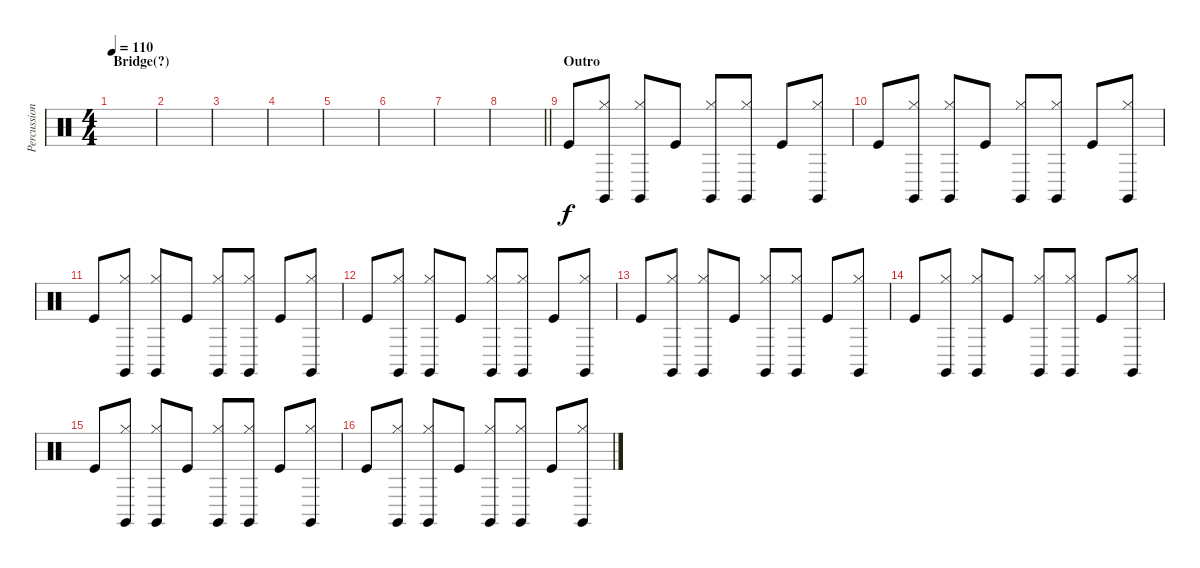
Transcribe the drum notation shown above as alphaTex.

\track ("Percussion" "Percussion") {instrument percussion}
\staff {score}
\articulation defaults
\ts (4 4)
\section ("" "Bridge(?)")
\tempo 110
\clef neutral
\ks c
|
|
|
|
|
|
|
\barLineRight lightlight
|
\section ("" "Outro")
"Kick (hit)".8 ("Claves (hit)" "Hi-Hat (closed)").8 ("Claves (hit)" "Hi-Hat (closed)").8 "Kick (hit)".8 ("Claves (hit)" "Hi-Hat (closed)").8 ("Claves (hit)" "Hi-Hat (closed)").8 "Kick (hit)".8 ("Claves (hit)" "Hi-Hat (closed)").8 |
"Kick (hit)".8 ("Claves (hit)" "Hi-Hat (closed)").8 ("Claves (hit)" "Hi-Hat (closed)").8 "Kick (hit)".8 ("Claves (hit)" "Hi-Hat (closed)").8 ("Claves (hit)" "Hi-Hat (closed)").8 "Kick (hit)".8 ("Claves (hit)" "Hi-Hat (closed)").8 |
"Kick (hit)".8 ("Claves (hit)" "Hi-Hat (closed)").8 ("Claves (hit)" "Hi-Hat (closed)").8 "Kick (hit)".8 ("Claves (hit)" "Hi-Hat (closed)").8 ("Claves (hit)" "Hi-Hat (closed)").8 "Kick (hit)".8 ("Claves (hit)" "Hi-Hat (closed)").8 |
"Kick (hit)".8 ("Claves (hit)" "Hi-Hat (closed)").8 ("Claves (hit)" "Hi-Hat (closed)").8 "Kick (hit)".8 ("Claves (hit)" "Hi-Hat (closed)").8 ("Claves (hit)" "Hi-Hat (closed)").8 "Kick (hit)".8 ("Claves (hit)" "Hi-Hat (closed)").8 |
"Kick (hit)".8 ("Claves (hit)" "Hi-Hat (closed)").8 ("Claves (hit)" "Hi-Hat (closed)").8 "Kick (hit)".8 ("Claves (hit)" "Hi-Hat (closed)").8 ("Claves (hit)" "Hi-Hat (closed)").8 "Kick (hit)".8 ("Claves (hit)" "Hi-Hat (closed)").8 |
"Kick (hit)".8 ("Claves (hit)" "Hi-Hat (closed)").8 ("Claves (hit)" "Hi-Hat (closed)").8 "Kick (hit)".8 ("Claves (hit)" "Hi-Hat (closed)").8 ("Claves (hit)" "Hi-Hat (closed)").8 "Kick (hit)".8 ("Claves (hit)" "Hi-Hat (closed)").8 |
"Kick (hit)".8 ("Claves (hit)" "Hi-Hat (closed)").8 ("Claves (hit)" "Hi-Hat (closed)").8 "Kick (hit)".8 ("Claves (hit)" "Hi-Hat (closed)").8 ("Claves (hit)" "Hi-Hat (closed)").8 "Kick (hit)".8 ("Claves (hit)" "Hi-Hat (closed)").8 |
"Kick (hit)".8 ("Claves (hit)" "Hi-Hat (closed)").8 ("Claves (hit)" "Hi-Hat (closed)").8 "Kick (hit)".8 ("Claves (hit)" "Hi-Hat (closed)").8 ("Claves (hit)" "Hi-Hat (closed)").8 "Kick (hit)".8 ("Claves (hit)" "Hi-Hat (closed)").8
